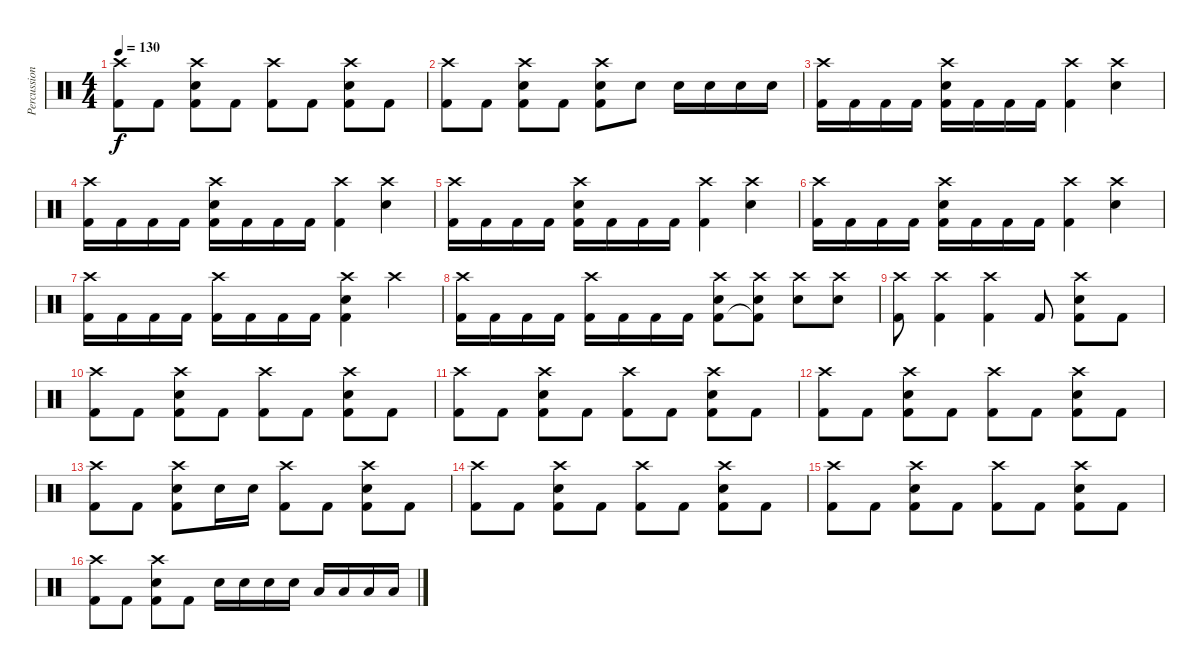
\track ("Percussion" "Percussion") {instrument percussion}
\staff {score}
\articulation defaults
\ts (4 4)
\tempo 130
\clef neutral
\ks c
("Crash high (hit)" "Kick (hit) 2").8{dy f} "Kick (hit) 2".8 ("Crash high (hit)" "Electric Snare (hit)" "Kick (hit) 2").8 "Kick (hit) 2".8 ("Crash high (hit)" "Kick (hit) 2").8 "Kick (hit) 2".8 ("Crash high (hit)" "Electric Snare (hit)" "Kick (hit) 2").8 "Kick (hit) 2".8 |
("Crash high (hit)" "Kick (hit) 2").8 "Kick (hit) 2".8 ("Crash high (hit)" "Electric Snare (hit)" "Kick (hit) 2").8 "Kick (hit) 2".8 ("Crash high (hit)" "Electric Snare (hit)" "Kick (hit) 2").8 "Electric Snare (hit)".8 "Electric Snare (hit)".16 "Electric Snare (hit)".16 "Electric Snare (hit)".16 "Electric Snare (hit)".16 |
("Crash high (hit)" "Kick (hit) 2").16 "Kick (hit) 2".16 "Kick (hit) 2".16 "Kick (hit) 2".16 ("Crash high (hit)" "Electric Snare (hit)" "Kick (hit) 2").16 "Kick (hit) 2".16 "Kick (hit) 2".16 "Kick (hit) 2".16 ("Crash high (hit)" "Kick (hit) 2").4 ("Crash high (hit)" "Electric Snare (hit)").4 |
("Crash high (hit)" "Kick (hit) 2").16 "Kick (hit) 2".16 "Kick (hit) 2".16 "Kick (hit) 2".16 ("Crash high (hit)" "Electric Snare (hit)" "Kick (hit) 2").16 "Kick (hit) 2".16 "Kick (hit) 2".16 "Kick (hit) 2".16 ("Crash high (hit)" "Kick (hit) 2").4 ("Crash high (hit)" "Electric Snare (hit)").4 |
("Crash high (hit)" "Kick (hit) 2").16 "Kick (hit) 2".16 "Kick (hit) 2".16 "Kick (hit) 2".16 ("Crash high (hit)" "Electric Snare (hit)" "Kick (hit) 2").16 "Kick (hit) 2".16 "Kick (hit) 2".16 "Kick (hit) 2".16 ("Crash high (hit)" "Kick (hit) 2").4 ("Crash high (hit)" "Electric Snare (hit)").4 |
("Crash high (hit)" "Kick (hit) 2").16 "Kick (hit) 2".16 "Kick (hit) 2".16 "Kick (hit) 2".16 ("Crash high (hit)" "Electric Snare (hit)" "Kick (hit) 2").16 "Kick (hit) 2".16 "Kick (hit) 2".16 "Kick (hit) 2".16 ("Crash high (hit)" "Kick (hit) 2").4 ("Crash high (hit)" "Electric Snare (hit)").4 |
("Crash high (hit)" "Kick (hit) 2").16 "Kick (hit) 2".16 "Kick (hit) 2".16 "Kick (hit) 2".16 ("Crash high (hit)" "Kick (hit) 2").16 "Kick (hit) 2".16 "Kick (hit) 2".16 "Kick (hit) 2".16 ("Crash high (hit)" "Electric Snare (hit)" "Kick (hit) 2").4 "Crash high (hit)".4 |
("Crash high (hit)" "Kick (hit) 2").16 "Kick (hit) 2".16 "Kick (hit) 2".16 "Kick (hit) 2".16 ("Crash high (hit)" "Kick (hit) 2").16 "Kick (hit) 2".16 "Kick (hit) 2".16 "Kick (hit) 2".16 ("Crash high (hit)" "Electric Snare (hit)" "Kick (hit) 2").8 ("Crash high (hit)" "Electric Snare (hit)" "Kick (hit) 2"{t}).8 ("Crash high (hit)" "Electric Snare (hit)").8 ("Crash high (hit)" "Electric Snare (hit)").8 |
("Crash high (hit)" "Kick (hit) 2").8 ("Crash high (hit)" "Kick (hit) 2").4 ("Crash high (hit)" "Kick (hit) 2").4 "Kick (hit) 2".8 ("Crash high (hit)" "Electric Snare (hit)" "Kick (hit) 2").8 "Kick (hit) 2".8 |
("Crash high (hit)" "Kick (hit) 2").8 "Kick (hit) 2".8 ("Crash high (hit)" "Electric Snare (hit)" "Kick (hit) 2").8 "Kick (hit) 2".8 ("Crash high (hit)" "Kick (hit) 2").8 "Kick (hit) 2".8 ("Crash high (hit)" "Electric Snare (hit)" "Kick (hit) 2").8 "Kick (hit) 2".8 |
("Crash high (hit)" "Kick (hit) 2").8 "Kick (hit) 2".8 ("Crash high (hit)" "Electric Snare (hit)" "Kick (hit) 2").8 "Kick (hit) 2".8 ("Crash high (hit)" "Kick (hit) 2").8 "Kick (hit) 2".8 ("Crash high (hit)" "Electric Snare (hit)" "Kick (hit) 2").8 "Kick (hit) 2".8 |
("Crash high (hit)" "Kick (hit) 2").8 "Kick (hit) 2".8 ("Crash high (hit)" "Electric Snare (hit)" "Kick (hit) 2").8 "Kick (hit) 2".8 ("Crash high (hit)" "Kick (hit) 2").8 "Kick (hit) 2".8 ("Crash high (hit)" "Electric Snare (hit)" "Kick (hit) 2").8 "Kick (hit) 2".8 |
("Crash high (hit)" "Kick (hit) 2").8 "Kick (hit) 2".8 ("Crash high (hit)" "Electric Snare (hit)" "Kick (hit) 2").8 "Electric Snare (hit)".16 "Electric Snare (hit)".16 ("Crash high (hit)" "Kick (hit) 2").8 "Kick (hit) 2".8 ("Crash high (hit)" "Electric Snare (hit)" "Kick (hit) 2").8 "Kick (hit) 2".8 |
("Crash high (hit)" "Kick (hit) 2").8 "Kick (hit) 2".8 ("Crash high (hit)" "Electric Snare (hit)" "Kick (hit) 2").8 "Kick (hit) 2".8 ("Crash high (hit)" "Kick (hit) 2").8 "Kick (hit) 2".8 ("Crash high (hit)" "Electric Snare (hit)" "Kick (hit) 2").8 "Kick (hit) 2".8 |
("Crash high (hit)" "Kick (hit) 2").8 "Kick (hit) 2".8 ("Crash high (hit)" "Electric Snare (hit)" "Kick (hit) 2").8 "Kick (hit) 2".8 ("Crash high (hit)" "Kick (hit) 2").8 "Kick (hit) 2".8 ("Crash high (hit)" "Electric Snare (hit)" "Kick (hit) 2").8 "Kick (hit) 2".8 |
("Crash high (hit)" "Kick (hit) 2").8 "Kick (hit) 2".8 ("Crash high (hit)" "Electric Snare (hit)" "Kick (hit) 2").8 "Kick (hit) 2".8 "Electric Snare (hit)".16 "Electric Snare (hit)".16 "Electric Snare (hit)".16 "Electric Snare (hit)".16 "Low Tom (hit)".16 "Low Tom (hit)".16 "Low Tom (hit)".16 "Low Tom (hit)".16
